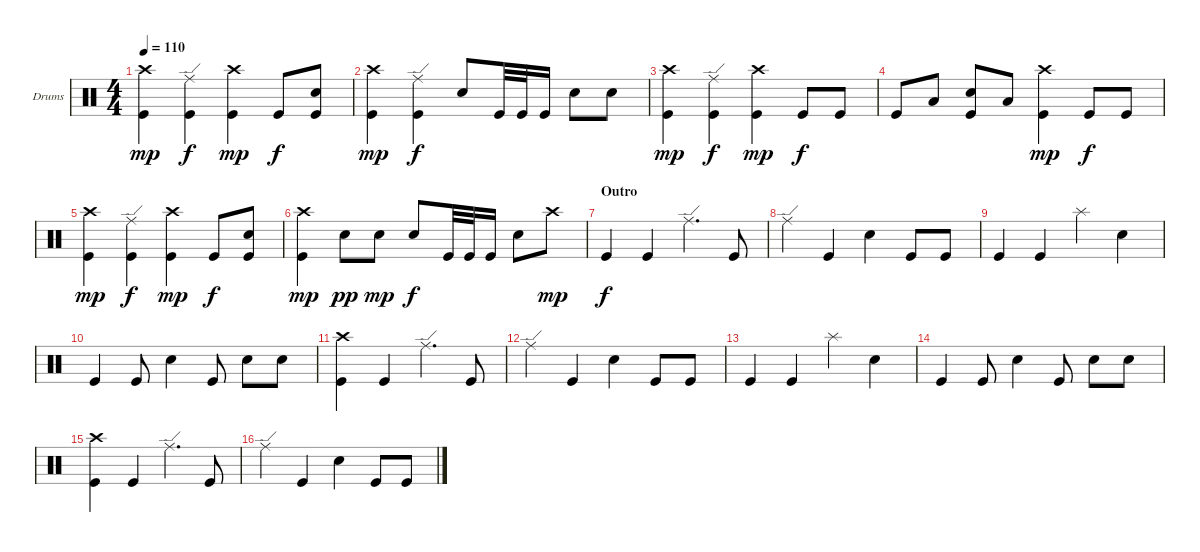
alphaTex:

\bracketExtendMode groupsimilarinstruments
\firstSystemTrackNameOrientation horizontal
\otherSystemsTrackNameOrientation horizontal
\track ("Drumkit" "Drums") {instrument percussion}
\staff {score}
\articulation defaults
\ts (4 4)
\tempo 110
\clef neutral
\ks c
("Crash high (hit)" "Kick (hit)").4{dy mp} ("Ride (edge)" "Kick (hit)").4{dy f} ("Crash high (hit)" "Kick (hit)").4{dy mp} "Kick (hit)".8{dy f} ("Snare (hit) 2" "Kick (hit)").8 |
("Crash high (hit)" "Kick (hit)").4{dy mp} ("Ride (edge)" "Kick (hit)").4{dy f} "Snare (hit) 2".8 "Kick (hit)".32 "Kick (hit)".32 "Kick (hit)".16 "Snare (hit) 2".8 "Snare (hit) 2".8 |
("Crash high (hit)" "Kick (hit)").4{dy mp} ("Ride (edge)" "Kick (hit)").4{dy f} ("Crash high (hit)" "Kick (hit)").4{dy mp} "Kick (hit)".8{dy f} "Kick (hit)".8 |
"Kick (hit)".8 "Low Tom (hit)".8 ("Snare (hit) 2" "Kick (hit)").8 "Low Tom (hit)".8 ("Crash high (hit)" "Kick (hit)").4{dy mp} "Kick (hit)".8{dy f} "Kick (hit)".8 |
("Crash high (hit)" "Kick (hit)").4{dy mp} ("Ride (edge)" "Kick (hit)").4{dy f} ("Crash high (hit)" "Kick (hit)").4{dy mp} "Kick (hit)".8{dy f} ("Snare (hit) 2" "Kick (hit)").8 |
("Crash high (hit)" "Kick (hit)").4{dy mp} "Snare (hit) 2".8{dy pp} "Snare (hit) 2".8{dy mp} "Snare (hit) 2".8{dy f} "Kick (hit)".32 "Kick (hit)".32 "Kick (hit)".16 "Snare (hit) 2".8 "Crash high (hit)".8{dy mp} |
\section ("" "Outro")
"Kick (hit)".4{dy f} "Kick (hit)".4 "Ride (edge)".4{d} "Kick (hit)".8 |
"Ride (edge)".4 "Kick (hit)".4 "Snare (hit) 2".4 "Kick (hit)".8 "Kick (hit)".8 |
"Kick (hit)".4 "Kick (hit)".4 "Splash (hit)".4 "Snare (hit) 2".4 |
"Kick (hit)".4 "Kick (hit)".8 "Snare (hit) 2".4 "Kick (hit)".8 "Snare (hit) 2".8 "Snare (hit) 2".8 |
("Crash high (hit)" "Kick (hit)").4 "Kick (hit)".4 "Ride (edge)".4{d} "Kick (hit)".8 |
"Ride (edge)".4 "Kick (hit)".4 "Snare (hit) 2".4 "Kick (hit)".8 "Kick (hit)".8 |
"Kick (hit)".4 "Kick (hit)".4 "Splash (hit)".4 "Snare (hit) 2".4 |
"Kick (hit)".4 "Kick (hit)".8 "Snare (hit) 2".4 "Kick (hit)".8 "Snare (hit) 2".8 "Snare (hit) 2".8 |
("Crash high (hit)" "Kick (hit)").4 "Kick (hit)".4 "Ride (edge)".4{d} "Kick (hit)".8 |
"Ride (edge)".4 "Kick (hit)".4 "Snare (hit) 2".4 "Kick (hit)".8 "Kick (hit)".8
